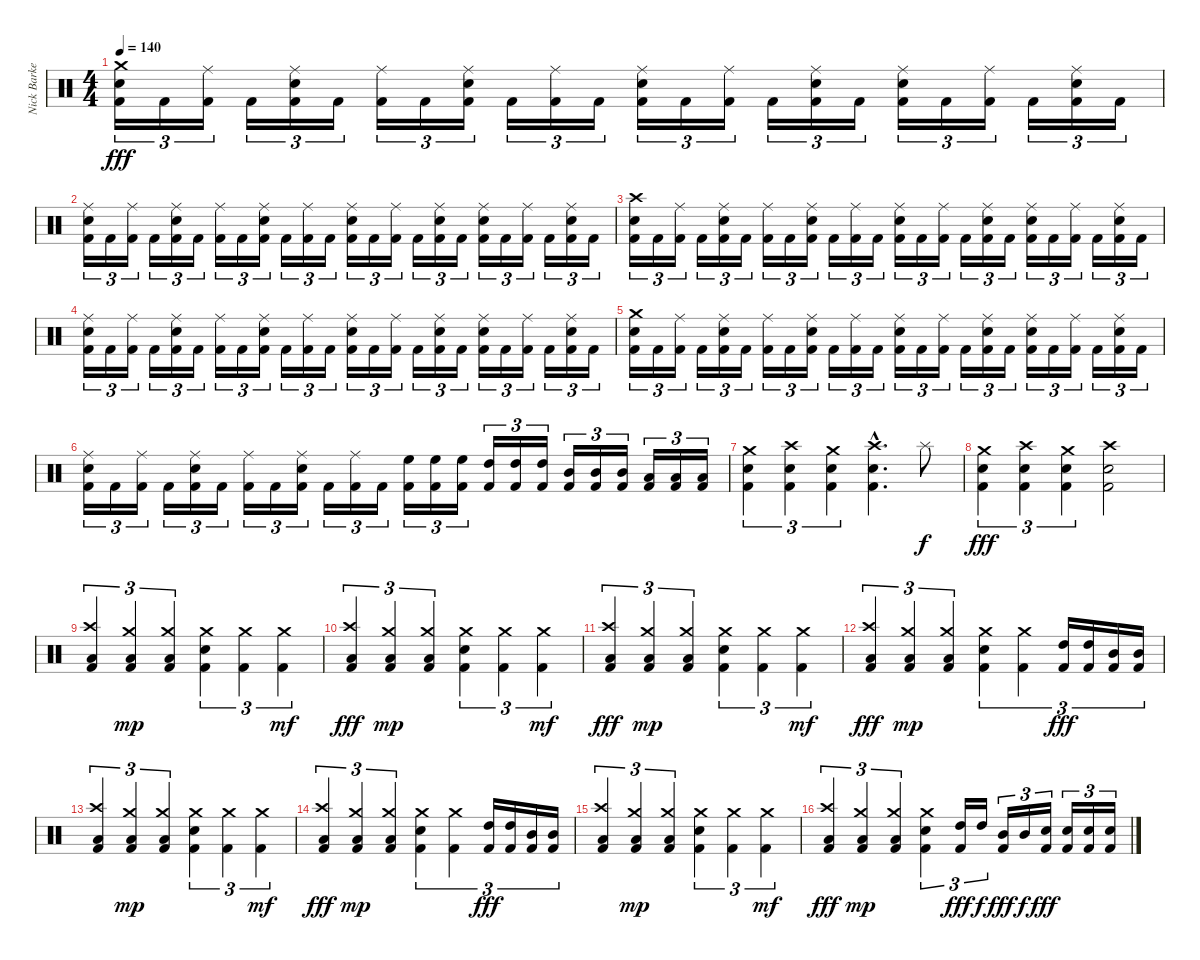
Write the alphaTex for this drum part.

\track ("Nick Barker - Drums - Percussion" "Nick Barke") {instrument percussion}
\staff {score}
\articulation defaults
\ts (4 4)
\tempo 140
\clef neutral
\ks c
("Kick (hit) 2" "Snare (hit) 2" "Crash medium (hit)").16{tu (3 2) dy fff} "Kick (hit) 2".16{tu (3 2)} ("Kick (hit) 2" "Ride (middle)").16{tu (3 2)} "Kick (hit) 2".16{tu (3 2)} ("Kick (hit) 2" "Snare (hit) 2" "Ride (middle)").16{tu (3 2)} "Kick (hit) 2".16{tu (3 2)} ("Kick (hit) 2" "Ride (middle)").16{tu (3 2)} "Kick (hit) 2".16{tu (3 2)} ("Kick (hit) 2" "Snare (hit) 2" "Ride (middle)").16{tu (3 2)} "Kick (hit) 2".16{tu (3 2)} ("Kick (hit) 2" "Ride (middle)").16{tu (3 2)} "Kick (hit) 2".16{tu (3 2)} ("Kick (hit) 2" "Snare (hit) 2" "Ride (middle)").16{tu (3 2)} "Kick (hit) 2".16{tu (3 2)} ("Kick (hit) 2" "Ride (middle)").16{tu (3 2)} "Kick (hit) 2".16{tu (3 2)} ("Kick (hit) 2" "Snare (hit) 2" "Ride (middle)").16{tu (3 2)} "Kick (hit) 2".16{tu (3 2)} ("Kick (hit) 2" "Snare (hit) 2" "Ride (middle)").16{tu (3 2)} "Kick (hit) 2".16{tu (3 2)} ("Kick (hit) 2" "Ride (middle)").16{tu (3 2)} "Kick (hit) 2".16{tu (3 2)} ("Kick (hit) 2" "Snare (hit) 2" "Ride (middle)").16{tu (3 2)} "Kick (hit) 2".16{tu (3 2)} |
("Kick (hit) 2" "Snare (hit) 2" "Ride (middle)").16{tu (3 2)} "Kick (hit) 2".16{tu (3 2)} ("Kick (hit) 2" "Ride (middle)").16{tu (3 2)} "Kick (hit) 2".16{tu (3 2)} ("Kick (hit) 2" "Snare (hit) 2" "Ride (middle)").16{tu (3 2)} "Kick (hit) 2".16{tu (3 2)} ("Kick (hit) 2" "Ride (middle)").16{tu (3 2)} "Kick (hit) 2".16{tu (3 2)} ("Kick (hit) 2" "Snare (hit) 2" "Ride (middle)").16{tu (3 2)} "Kick (hit) 2".16{tu (3 2)} ("Kick (hit) 2" "Ride (middle)").16{tu (3 2)} "Kick (hit) 2".16{tu (3 2)} ("Kick (hit) 2" "Snare (hit) 2" "Ride (middle)").16{tu (3 2)} "Kick (hit) 2".16{tu (3 2)} ("Kick (hit) 2" "Ride (middle)").16{tu (3 2)} "Kick (hit) 2".16{tu (3 2)} ("Kick (hit) 2" "Snare (hit) 2" "Ride (middle)").16{tu (3 2)} "Kick (hit) 2".16{tu (3 2)} ("Kick (hit) 2" "Snare (hit) 2" "Ride (middle)").16{tu (3 2)} "Kick (hit) 2".16{tu (3 2)} ("Kick (hit) 2" "Ride (middle)").16{tu (3 2)} "Kick (hit) 2".16{tu (3 2)} ("Kick (hit) 2" "Snare (hit) 2" "Ride (middle)").16{tu (3 2)} "Kick (hit) 2".16{tu (3 2)} |
("Kick (hit) 2" "Snare (hit) 2" "Crash high (hit)").16{tu (3 2)} "Kick (hit) 2".16{tu (3 2)} ("Kick (hit) 2" "Ride (middle)").16{tu (3 2)} "Kick (hit) 2".16{tu (3 2)} ("Kick (hit) 2" "Snare (hit) 2" "Ride (middle)").16{tu (3 2)} "Kick (hit) 2".16{tu (3 2)} ("Kick (hit) 2" "Ride (middle)").16{tu (3 2)} "Kick (hit) 2".16{tu (3 2)} ("Kick (hit) 2" "Snare (hit) 2" "Ride (middle)").16{tu (3 2)} "Kick (hit) 2".16{tu (3 2)} ("Kick (hit) 2" "Ride (middle)").16{tu (3 2)} "Kick (hit) 2".16{tu (3 2)} ("Kick (hit) 2" "Snare (hit) 2" "Ride (middle)").16{tu (3 2)} "Kick (hit) 2".16{tu (3 2)} ("Kick (hit) 2" "Ride (middle)").16{tu (3 2)} "Kick (hit) 2".16{tu (3 2)} ("Kick (hit) 2" "Snare (hit) 2" "Ride (middle)").16{tu (3 2)} "Kick (hit) 2".16{tu (3 2)} ("Kick (hit) 2" "Snare (hit) 2" "Ride (middle)").16{tu (3 2)} "Kick (hit) 2".16{tu (3 2)} ("Kick (hit) 2" "Ride (middle)").16{tu (3 2)} "Kick (hit) 2".16{tu (3 2)} ("Kick (hit) 2" "Snare (hit) 2" "Ride (middle)").16{tu (3 2)} "Kick (hit) 2".16{tu (3 2)} |
("Kick (hit) 2" "Snare (hit) 2" "Ride (middle)").16{tu (3 2)} "Kick (hit) 2".16{tu (3 2)} ("Kick (hit) 2" "Ride (middle)").16{tu (3 2)} "Kick (hit) 2".16{tu (3 2)} ("Kick (hit) 2" "Snare (hit) 2" "Ride (middle)").16{tu (3 2)} "Kick (hit) 2".16{tu (3 2)} ("Kick (hit) 2" "Ride (middle)").16{tu (3 2)} "Kick (hit) 2".16{tu (3 2)} ("Kick (hit) 2" "Snare (hit) 2" "Ride (middle)").16{tu (3 2)} "Kick (hit) 2".16{tu (3 2)} ("Kick (hit) 2" "Ride (middle)").16{tu (3 2)} "Kick (hit) 2".16{tu (3 2)} ("Kick (hit) 2" "Snare (hit) 2" "Ride (middle)").16{tu (3 2)} "Kick (hit) 2".16{tu (3 2)} ("Kick (hit) 2" "Ride (middle)").16{tu (3 2)} "Kick (hit) 2".16{tu (3 2)} ("Kick (hit) 2" "Snare (hit) 2" "Ride (middle)").16{tu (3 2)} "Kick (hit) 2".16{tu (3 2)} ("Kick (hit) 2" "Snare (hit) 2" "Ride (middle)").16{tu (3 2)} "Kick (hit) 2".16{tu (3 2)} ("Kick (hit) 2" "Ride (middle)").16{tu (3 2)} "Kick (hit) 2".16{tu (3 2)} ("Kick (hit) 2" "Snare (hit) 2" "Ride (middle)").16{tu (3 2)} "Kick (hit) 2".16{tu (3 2)} |
("Kick (hit) 2" "Snare (hit) 2" "Crash medium (hit)").16{tu (3 2)} "Kick (hit) 2".16{tu (3 2)} ("Kick (hit) 2" "Ride (middle)").16{tu (3 2)} "Kick (hit) 2".16{tu (3 2)} ("Kick (hit) 2" "Snare (hit) 2" "Ride (middle)").16{tu (3 2)} "Kick (hit) 2".16{tu (3 2)} ("Kick (hit) 2" "Ride (middle)").16{tu (3 2)} "Kick (hit) 2".16{tu (3 2)} ("Kick (hit) 2" "Snare (hit) 2" "Ride (middle)").16{tu (3 2)} "Kick (hit) 2".16{tu (3 2)} ("Kick (hit) 2" "Ride (middle)").16{tu (3 2)} "Kick (hit) 2".16{tu (3 2)} ("Kick (hit) 2" "Snare (hit) 2" "Ride (middle)").16{tu (3 2)} "Kick (hit) 2".16{tu (3 2)} ("Kick (hit) 2" "Ride (middle)").16{tu (3 2)} "Kick (hit) 2".16{tu (3 2)} ("Kick (hit) 2" "Snare (hit) 2" "Ride (middle)").16{tu (3 2)} "Kick (hit) 2".16{tu (3 2)} ("Kick (hit) 2" "Snare (hit) 2" "Ride (middle)").16{tu (3 2)} "Kick (hit) 2".16{tu (3 2)} ("Kick (hit) 2" "Ride (middle)").16{tu (3 2)} "Kick (hit) 2".16{tu (3 2)} ("Kick (hit) 2" "Snare (hit) 2" "Ride (middle)").16{tu (3 2)} "Kick (hit) 2".16{tu (3 2)} |
("Kick (hit) 2" "Snare (hit) 2" "Ride (middle)").16{tu (3 2)} "Kick (hit) 2".16{tu (3 2)} ("Kick (hit) 2" "Ride (middle)").16{tu (3 2)} "Kick (hit) 2".16{tu (3 2)} ("Kick (hit) 2" "Snare (hit) 2" "Ride (middle)").16{tu (3 2)} "Kick (hit) 2".16{tu (3 2)} ("Kick (hit) 2" "Ride (middle)").16{tu (3 2)} "Kick (hit) 2".16{tu (3 2)} ("Kick (hit) 2" "Snare (hit) 2" "Ride (middle)").16{tu (3 2)} "Kick (hit) 2".16{tu (3 2)} ("Kick (hit) 2" "Ride (middle)").16{tu (3 2)} "Kick (hit) 2".16{tu (3 2)} ("Kick (hit) 2" "High Floor Tom (hit)").16{tu (3 2)} ("Kick (hit) 2" "High Floor Tom (hit)").16{tu (3 2)} ("Kick (hit) 2" "High Floor Tom (hit)").16{tu (3 2)} ("Kick (hit) 2" "High Tom (hit)").16{tu (3 2)} ("Kick (hit) 2" "High Tom (hit)").16{tu (3 2)} ("Kick (hit) 2" "High Tom (hit)").16{tu (3 2)} ("Kick (hit) 2" "Mid Tom (hit)").16{tu (3 2)} ("Kick (hit) 2" "Mid Tom (hit)").16{tu (3 2)} ("Kick (hit) 2" "Mid Tom (hit)").16{tu (3 2)} ("Kick (hit) 2" "Low Tom (hit)").16{tu (3 2)} ("Kick (hit) 2" "Low Tom (hit)").16{tu (3 2)} ("Kick (hit) 2" "Low Tom (hit)").16{tu (3 2)} |
("Kick (hit) 2" "Snare (hit) 2" "Crash medium (hit)").4{tu (3 2)} ("Kick (hit) 2" "Snare (hit) 2" "Crash high (hit)").4{tu (3 2)} ("Kick (hit) 2" "Snare (hit) 2" "Crash medium (hit)").4{tu (3 2)} ("Kick (hit) 2"{hac} "Snare (hit) 2"{hac} "Crash high (hit)"{hac}).4{d} "Splash (hit)".8{dy f} |
("Kick (hit) 2" "Snare (hit) 2" "Crash medium (hit)").4{tu (3 2) dy fff} ("Kick (hit) 2" "Snare (hit) 2" "Crash high (hit)").4{tu (3 2)} ("Kick (hit) 2" "Snare (hit) 2" "Crash medium (hit)").4{tu (3 2)} ("Kick (hit) 2" "Snare (hit) 2" "Crash high (hit)").2 |
("Kick (hit) 2" "Low Floor Tom (hit)" "Crash high (hit)").4{tu (3 2)} ("Kick (hit) 2" "Low Floor Tom (hit)" "Crash medium (hit)").4{tu (3 2) dy mp} ("Kick (hit) 2" "Low Floor Tom (hit)" "Crash medium (hit)").4{tu (3 2)} ("Kick (hit) 2" "Snare (hit) 2" "Crash medium (hit)").4{tu (3 2)} ("Kick (hit) 2" "Crash medium (hit)").4{tu (3 2)} ("Kick (hit) 2" "Crash medium (hit)").4{tu (3 2) dy mf} |
("Kick (hit) 2" "Low Floor Tom (hit)" "Crash high (hit)").4{tu (3 2) dy fff} ("Kick (hit) 2" "Low Floor Tom (hit)" "Crash medium (hit)").4{tu (3 2) dy mp} ("Kick (hit) 2" "Low Floor Tom (hit)" "Crash medium (hit)").4{tu (3 2)} ("Kick (hit) 2" "Snare (hit) 2" "Crash medium (hit)").4{tu (3 2)} ("Kick (hit) 2" "Crash medium (hit)").4{tu (3 2)} ("Kick (hit) 2" "Crash medium (hit)").4{tu (3 2) dy mf} |
("Kick (hit) 2" "Low Floor Tom (hit)" "Crash high (hit)").4{tu (3 2) dy fff} ("Kick (hit) 2" "Low Floor Tom (hit)" "Crash medium (hit)").4{tu (3 2) dy mp} ("Kick (hit) 2" "Low Floor Tom (hit)" "Crash medium (hit)").4{tu (3 2)} ("Kick (hit) 2" "Snare (hit) 2" "Crash medium (hit)").4{tu (3 2)} ("Kick (hit) 2" "Crash medium (hit)").4{tu (3 2)} ("Kick (hit) 2" "Crash medium (hit)").4{tu (3 2) dy mf} |
("Kick (hit) 2" "Low Floor Tom (hit)" "Crash high (hit)").4{tu (3 2) dy fff} ("Kick (hit) 2" "Low Floor Tom (hit)" "Crash medium (hit)").4{tu (3 2) dy mp} ("Kick (hit) 2" "Low Floor Tom (hit)" "Crash medium (hit)").4{tu (3 2)} ("Kick (hit) 2" "Snare (hit) 2" "Crash medium (hit)").4{tu (3 2)} ("Kick (hit) 2" "Crash medium (hit)").4{tu (3 2)} ("Kick (hit) 2" "High Tom (hit)").16{tu (3 2) dy fff} ("Kick (hit) 2" "High Tom (hit)").16{tu (3 2)} ("Kick (hit) 2" "Mid Tom (hit)").16{tu (3 2)} ("Kick (hit) 2" "Mid Tom (hit)").16{tu (3 2)} |
("Kick (hit) 2" "Low Floor Tom (hit)" "Crash high (hit)").4{tu (3 2)} ("Kick (hit) 2" "Low Floor Tom (hit)" "Crash medium (hit)").4{tu (3 2) dy mp} ("Kick (hit) 2" "Low Floor Tom (hit)" "Crash medium (hit)").4{tu (3 2)} ("Kick (hit) 2" "Snare (hit) 2" "Crash medium (hit)").4{tu (3 2)} ("Kick (hit) 2" "Crash medium (hit)").4{tu (3 2)} ("Kick (hit) 2" "Crash medium (hit)").4{tu (3 2) dy mf} |
("Kick (hit) 2" "Low Floor Tom (hit)" "Crash high (hit)").4{tu (3 2) dy fff} ("Kick (hit) 2" "Low Floor Tom (hit)" "Crash medium (hit)").4{tu (3 2) dy mp} ("Kick (hit) 2" "Low Floor Tom (hit)" "Crash medium (hit)").4{tu (3 2)} ("Kick (hit) 2" "Snare (hit) 2" "Crash medium (hit)").4{tu (3 2)} ("Kick (hit) 2" "Crash medium (hit)").4{tu (3 2)} ("Kick (hit) 2" "High Tom (hit)").16{tu (3 2) dy fff} ("Kick (hit) 2" "High Tom (hit)").16{tu (3 2)} ("Kick (hit) 2" "Mid Tom (hit)").16{tu (3 2)} ("Kick (hit) 2" "Mid Tom (hit)").16{tu (3 2)} |
("Kick (hit) 2" "Low Floor Tom (hit)" "Crash high (hit)").4{tu (3 2)} ("Kick (hit) 2" "Low Floor Tom (hit)" "Crash medium (hit)").4{tu (3 2) dy mp} ("Kick (hit) 2" "Low Floor Tom (hit)" "Crash medium (hit)").4{tu (3 2)} ("Kick (hit) 2" "Snare (hit) 2" "Crash medium (hit)").4{tu (3 2)} ("Kick (hit) 2" "Crash medium (hit)").4{tu (3 2)} ("Kick (hit) 2" "Crash medium (hit)").4{tu (3 2) dy mf} |
("Kick (hit) 2" "Low Floor Tom (hit)" "Crash high (hit)").4{tu (3 2) dy fff} ("Kick (hit) 2" "Low Floor Tom (hit)" "Crash medium (hit)").4{tu (3 2) dy mp} ("Kick (hit) 2" "Low Floor Tom (hit)" "Crash medium (hit)").4{tu (3 2)} ("Kick (hit) 2" "Snare (hit) 2" "Crash medium (hit)").4{tu (3 2)} ("Kick (hit) 2" "High Tom (hit)").16{tu (3 2) dy fff} "High Tom (hit)".16{tu (3 2) dy f} ("Kick (hit) 2" "Mid Tom (hit)").16{tu (3 2) dy fff} "Mid Tom (hit)".16{tu (3 2) dy f} ("Kick (hit) 2" "Snare (hit) 2").16{tu (3 2) dy fff} ("Kick (hit) 2" "Snare (hit) 2").16{tu (3 2)} ("Kick (hit) 2" "Snare (hit) 2").16{tu (3 2)} ("Kick (hit) 2" "Snare (hit) 2").16{tu (3 2)}
